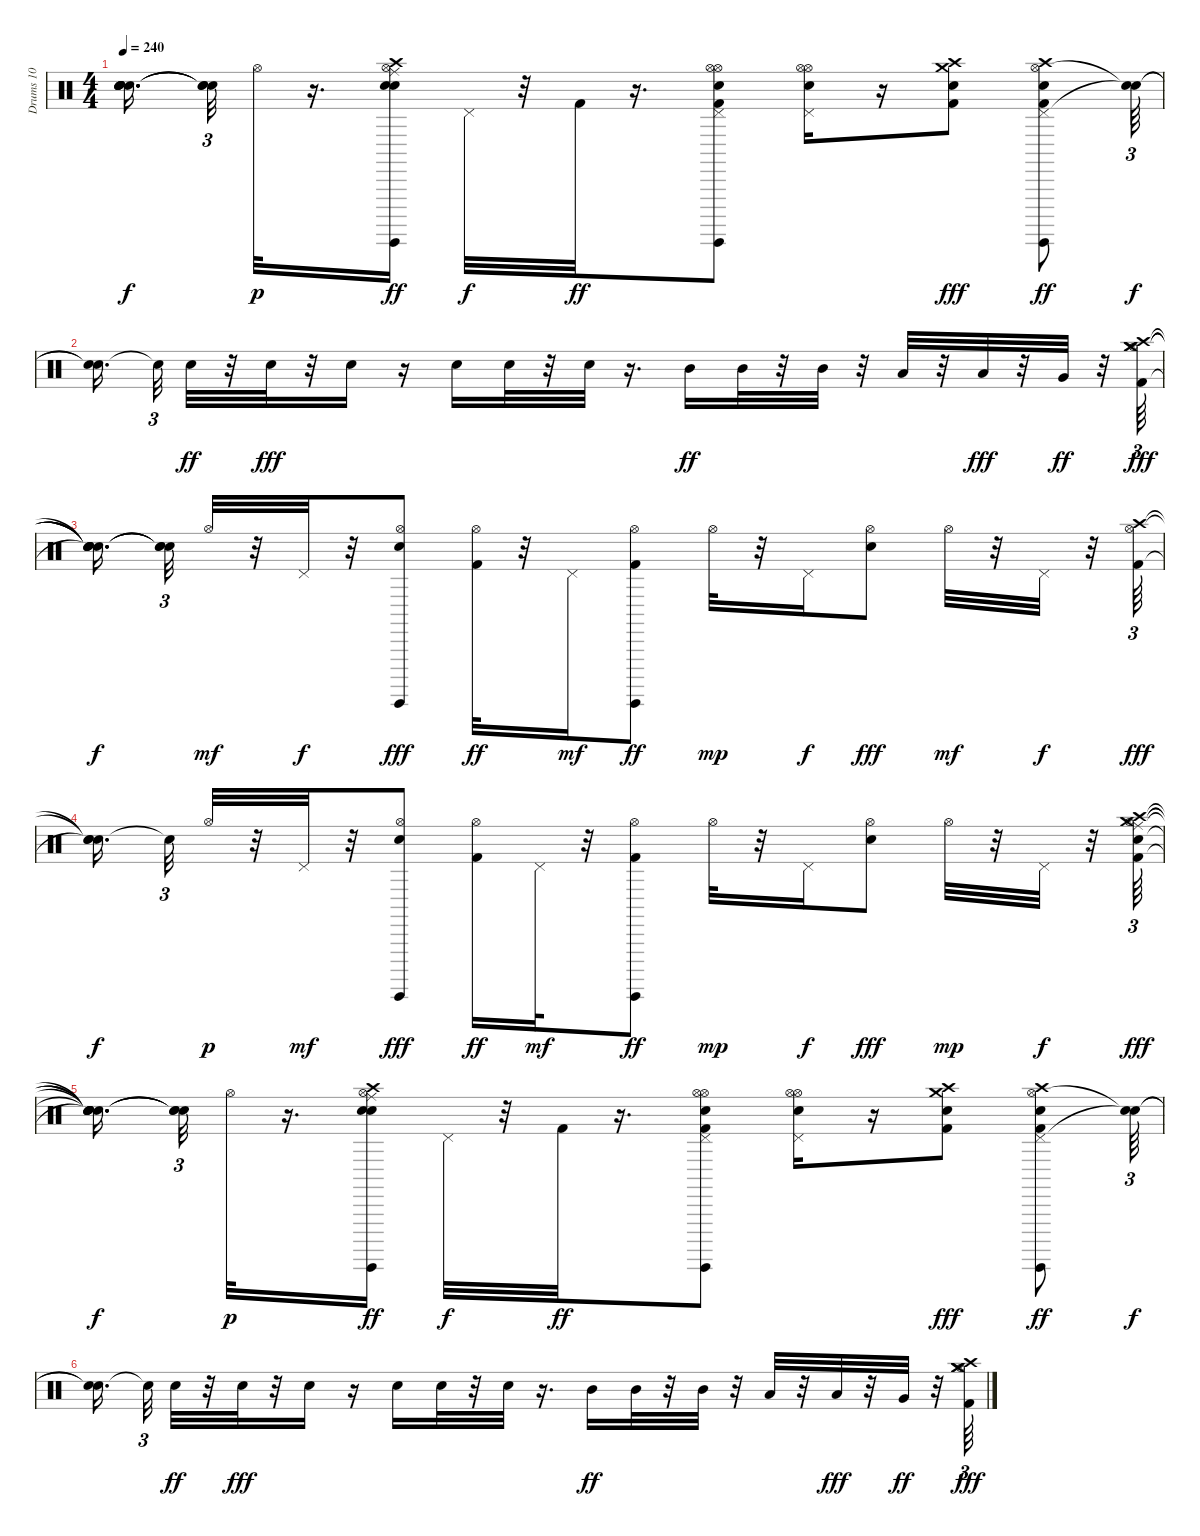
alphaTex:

\track ("Drums 10" "Drums 10") {instrument percussion}
\staff {score}
\articulation defaults
\ts (4 4)
\tempo 240
\clef neutral
\ks c
("Snare (hit)"{t} "Snare (hit)"{t} "Snare (hit)"{t} "Snare (hit)"{t} "Snare (hit)"{t} "Snare (hit)"{t}).16{d dy f beam splitsecondary} ("Snare (hit)"{t} "Snare (hit)"{t} "Snare (hit)"{t}).32{tu (3 2)} "Hi-Hat (open)".32{dy p} r.16{d} ("Hi-Hat (open)" "Guiro (hit)" "Snare (hit) 2" "Electric Snare (hit)" "Ride (middle)" "Crash high (hit)").16{dy ff} "Pedal Hi-Hat (hit)".32{dy f} r.32 "Kick (hit) 2".32{dy ff} r.16{d} ("Pedal Hi-Hat (hit)" "Hi-Hat (open)" "Guiro (hit)" "Kick (hit) 2" "Electric Snare (hit)" "Hi-Hat (open)").8 ("Pedal Hi-Hat (hit)" "Hi-Hat (open)" "Electric Snare (hit)" "Hi-Hat (open)").16 r.16 ("Kick (hit) 2" "Snare (hit) 2" "Crash high (hit)" "Crash medium (hit)").8{dy fff} ("Pedal Hi-Hat (hit)" "Hi-Hat (open)" "Guiro (hit)" "Kick (hit) 2" "Crash high (hit)" "Electric Snare (hit)").8{dy ff} ("Snare (hit)"{t} "Snare (hit)"{t}).64{tu (3 2) dy f} |
("Snare (hit)"{t} "Snare (hit)"{t}).16{d beam splitsecondary} "Snare (hit)"{t}.32{tu (3 2)} "Electric Snare (hit)".32{dy ff} r.32 "Electric Snare (hit)".32{dy fff} r.32 "Electric Snare (hit)".16 r.16 "Electric Snare (hit)".16 "Electric Snare (hit)".32 r.32 "Electric Snare (hit)".32 r.16{d} "Mid Tom (hit)".16{dy ff} "Mid Tom (hit)".32 r.32 "Mid Tom (hit)".32 r.32 "Low Tom (hit)".32 r.32 "Low Tom (hit)".32{dy fff} r.32 "Very Low Tom (hit)".32{dy ff} r.32 ("Crash high (hit)" "Crash medium (hit)" "Hi-Hat (open)" "Kick (hit) 2" "Crash medium (hit)").64{tu (3 2) dy fff} |
("Snare (hit)"{t} "Snare (hit)"{t} "Snare (hit)"{t} "Snare (hit)"{t} "Snare (hit)"{t}).16{d dy f beam splitsecondary} ("Snare (hit)"{t} "Snare (hit)"{t} "Snare (hit)"{t}).32{tu (3 2)} "Hi-Hat (open)".32{dy mf} r.32 "Pedal Hi-Hat (hit)".32{dy f} r.32 ("Hi-Hat (open)" "Guiro (hit)" "Snare (hit) 2").8{dy fff} ("Hi-Hat (open)" "Kick (hit) 2").32{dy ff} r.32 "Pedal Hi-Hat (hit)".16{dy mf} ("Hi-Hat (open)" "Guiro (hit)" "Kick (hit) 2").8{dy ff} "Hi-Hat (open)".32{dy mp} r.32 "Pedal Hi-Hat (hit)".16{dy f} ("Hi-Hat (open)" "Snare (hit) 2").8{dy fff} "Hi-Hat (open)".32{dy mf} r.32 "Pedal Hi-Hat (hit)".32{dy f} r.32 ("Hi-Hat (open)" "Kick (hit) 2" "Crash high (hit)").64{tu (3 2) dy fff} |
("Snare (hit)"{t} "Snare (hit)"{t} "Snare (hit)"{t}).16{d dy f beam splitsecondary} "Snare (hit)"{t}.32{tu (3 2)} "Hi-Hat (open)".32{dy p} r.32 "Pedal Hi-Hat (hit)".32{dy mf} r.32 ("Hi-Hat (open)" "Guiro (hit)" "Snare (hit) 2").8{dy fff} ("Hi-Hat (open)" "Kick (hit) 2").16{dy ff} "Pedal Hi-Hat (hit)".32{dy mf} r.32 ("Hi-Hat (open)" "Guiro (hit)" "Kick (hit) 2").8{dy ff} "Hi-Hat (open)".32{dy mp} r.32 "Pedal Hi-Hat (hit)".16{dy f} ("Hi-Hat (open)" "Snare (hit) 2").8{dy fff} "Hi-Hat (open)".32{dy mp} r.32 "Pedal Hi-Hat (hit)".32{dy f} r.32 ("Hi-Hat (open)" "Kick (hit) 2" "Electric Snare (hit)" "Ride (middle)" "Crash high (hit)" "Crash medium (hit)").64{tu (3 2) dy fff} |
("Snare (hit)"{t} "Snare (hit)"{t} "Snare (hit)"{t} "Snare (hit)"{t} "Snare (hit)"{t} "Snare (hit)"{t}).16{d dy f beam splitsecondary} ("Snare (hit)"{t} "Snare (hit)"{t} "Snare (hit)"{t}).32{tu (3 2)} "Hi-Hat (open)".32{dy p} r.16{d} ("Hi-Hat (open)" "Guiro (hit)" "Snare (hit) 2" "Electric Snare (hit)" "Ride (middle)" "Crash high (hit)").16{dy ff} "Pedal Hi-Hat (hit)".32{dy f} r.32 "Kick (hit) 2".32{dy ff} r.16{d} ("Pedal Hi-Hat (hit)" "Hi-Hat (open)" "Guiro (hit)" "Kick (hit) 2" "Electric Snare (hit)" "Hi-Hat (open)").8 ("Pedal Hi-Hat (hit)" "Hi-Hat (open)" "Electric Snare (hit)" "Hi-Hat (open)").16 r.16 ("Kick (hit) 2" "Snare (hit) 2" "Crash high (hit)" "Crash medium (hit)").8{dy fff} ("Pedal Hi-Hat (hit)" "Hi-Hat (open)" "Guiro (hit)" "Kick (hit) 2" "Crash high (hit)" "Electric Snare (hit)").8{dy ff} ("Snare (hit)"{t} "Snare (hit)"{t}).64{tu (3 2) dy f} |
("Snare (hit)"{t} "Snare (hit)"{t}).16{d beam splitsecondary} "Snare (hit)"{t}.32{tu (3 2)} "Electric Snare (hit)".32{dy ff} r.32 "Electric Snare (hit)".32{dy fff} r.32 "Electric Snare (hit)".16 r.16 "Electric Snare (hit)".16 "Electric Snare (hit)".32 r.32 "Electric Snare (hit)".32 r.16{d} "Mid Tom (hit)".16{dy ff} "Mid Tom (hit)".32 r.32 "Mid Tom (hit)".32 r.32 "Low Tom (hit)".32 r.32 "Low Tom (hit)".32{dy fff} r.32 "Very Low Tom (hit)".32{dy ff} r.32 ("Crash high (hit)" "Crash medium (hit)" "Hi-Hat (open)" "Kick (hit) 2" "Crash medium (hit)").64{tu (3 2) dy fff}
